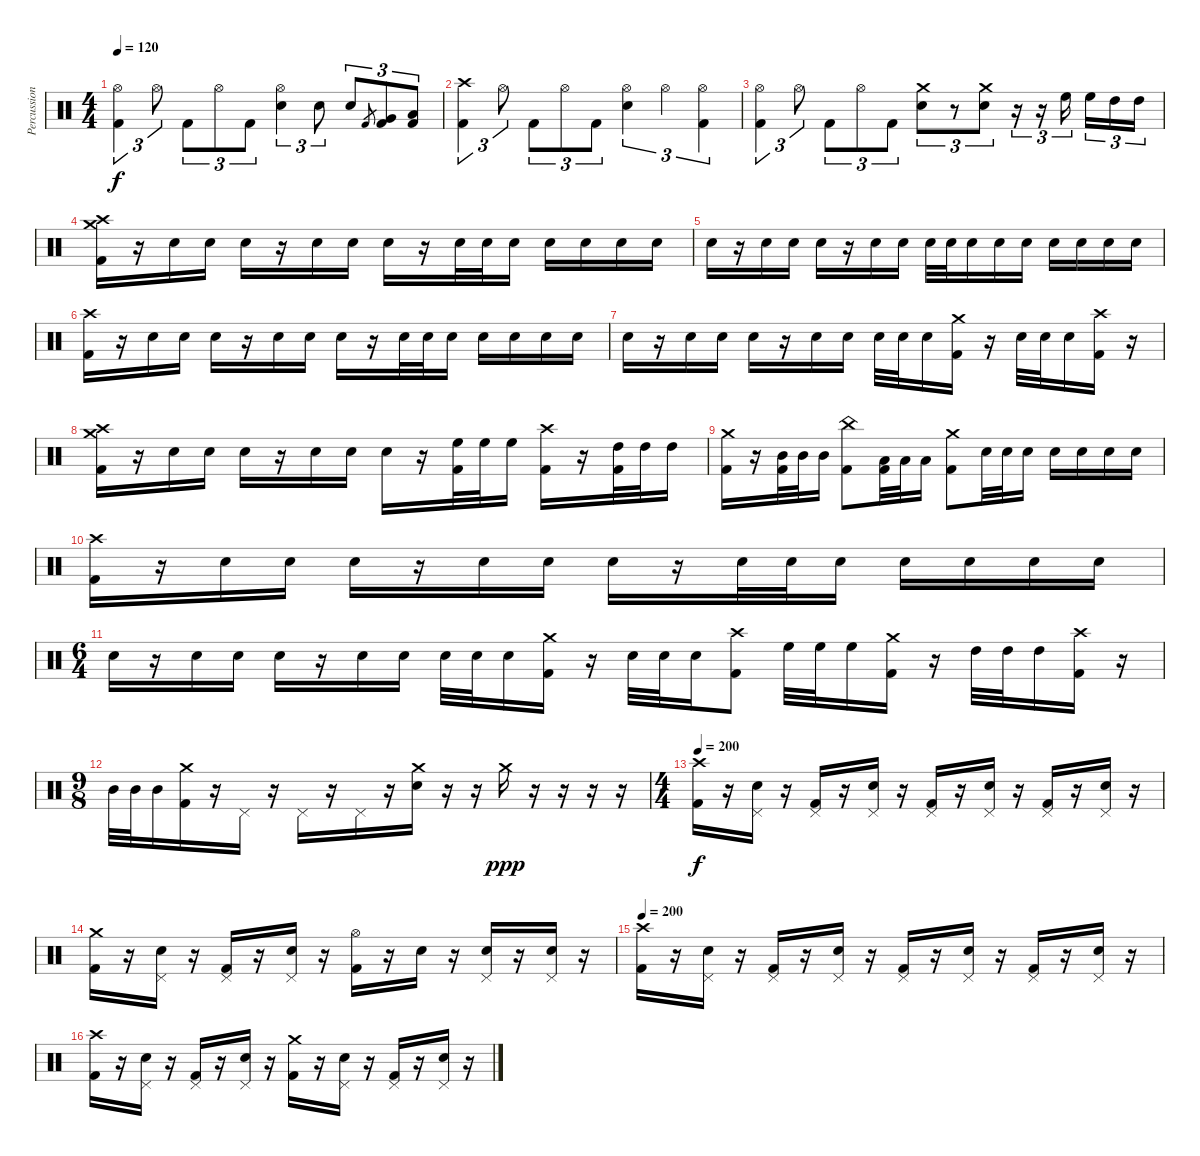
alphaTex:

\track ("Percussion" "Percussion") {instrument percussion}
\staff {score}
\articulation defaults
\ts (4 4)
\tempo 120
\clef neutral
\ks c
("Kick (hit) 2" "Hi-Hat (open)").4{tu (3 2) dy f} "Hi-Hat (open)".8{tu (3 2)} "Kick (hit) 2".8{tu (3 2)} "Hi-Hat (open)".8{tu (3 2)} "Kick (hit) 2".8{tu (3 2)} ("Snare (hit) 2" "Hi-Hat (open)").4{tu (3 2)} "Snare (hit) 2".8{tu (3 2)} "Snare (hit) 2".8{tu (3 2)} "Kick (hit) 2".8{gr} ("Very Low Tom (hit)" "Kick (hit) 2").8{tu (3 2)} ("Low Floor Tom (hit)" "Kick (hit) 2").8{tu (3 2)} |
("Kick (hit) 2" "Crash high (hit)").4{tu (3 2)} "Hi-Hat (open)".8{tu (3 2)} "Kick (hit) 2".8{tu (3 2)} "Hi-Hat (open)".8{tu (3 2)} "Kick (hit) 2".8{tu (3 2)} ("Snare (hit) 2" "Hi-Hat (open)").4{tu (3 2)} "Hi-Hat (open)".4{tu (3 2)} ("Kick (hit) 2" "Hi-Hat (open)").4{tu (3 2)} |
("Kick (hit) 2" "Hi-Hat (open)").4{tu (3 2)} "Hi-Hat (open)".8{tu (3 2)} "Kick (hit) 2".8{tu (3 2)} "Hi-Hat (open)".8{tu (3 2)} "Kick (hit) 2".8{tu (3 2)} ("Snare (hit) 2" "Crash medium (hit)").8{tu (3 2)} r.8{tu (3 2)} ("Snare (hit) 2" "Crash medium (hit)").8{tu (3 2)} r.16{tu (3 2)} r.16{tu (3 2)} "High Floor Tom (hit)".16{tu (3 2) beam splitsecondary} "High Floor Tom (hit)".16{tu (3 2)} "High Tom (hit)".16{tu (3 2)} "High Tom (hit)".16{tu (3 2)} |
("Crash high (hit)" "Crash medium (hit)" "Kick (hit) 2").16 r.16 "Snare (hit) 2".16 "Snare (hit) 2".16 "Snare (hit) 2".16 r.16 "Snare (hit) 2".16 "Snare (hit) 2".16 "Snare (hit) 2".16 r.16 "Snare (hit) 2".32 "Snare (hit) 2".32 "Snare (hit) 2".16 "Snare (hit) 2".16 "Snare (hit) 2".16 "Snare (hit) 2".16 "Snare (hit) 2".16 |
"Snare (hit) 2".16 r.16 "Snare (hit) 2".16 "Snare (hit) 2".16 "Snare (hit) 2".16 r.16 "Snare (hit) 2".16 "Snare (hit) 2".16 "Snare (hit) 2".32 "Snare (hit) 2".32 "Snare (hit) 2".16 "Snare (hit) 2".16 "Snare (hit) 2".16 "Snare (hit) 2".16 "Snare (hit) 2".16 "Snare (hit) 2".16 "Snare (hit) 2".16 |
("Crash high (hit)" "Kick (hit) 2").16 r.16 "Snare (hit) 2".16 "Snare (hit) 2".16 "Snare (hit) 2".16 r.16 "Snare (hit) 2".16 "Snare (hit) 2".16 "Snare (hit) 2".16 r.16 "Snare (hit) 2".32 "Snare (hit) 2".32 "Snare (hit) 2".16 "Snare (hit) 2".16 "Snare (hit) 2".16 "Snare (hit) 2".16 "Snare (hit) 2".16 |
"Snare (hit) 2".16 r.16 "Snare (hit) 2".16 "Snare (hit) 2".16 "Snare (hit) 2".16 r.16 "Snare (hit) 2".16 "Snare (hit) 2".16 "Snare (hit) 2".32 "Snare (hit) 2".32 "Snare (hit) 2".16 ("Crash medium (hit)" "Kick (hit) 2").16 r.16 "Snare (hit) 2".32 "Snare (hit) 2".32 "Snare (hit) 2".16 ("Crash high (hit)" "Kick (hit) 2").16 r.16 |
("Crash high (hit)" "Crash medium (hit)" "Kick (hit) 2").16 r.16 "Snare (hit) 2".16 "Snare (hit) 2".16 "Snare (hit) 2".16 r.16 "Snare (hit) 2".16 "Snare (hit) 2".16 "Snare (hit) 2".16 r.16 ("High Floor Tom (hit)" "Kick (hit) 2").32 "High Floor Tom (hit)".32 "High Floor Tom (hit)".16 ("Crash high (hit)" "Kick (hit) 2").16 r.16 ("High Tom (hit)" "Kick (hit) 2").32 "High Tom (hit)".32 "High Tom (hit)".16 |
("Crash medium (hit)" "Kick (hit) 2").16 r.16 ("Mid Tom (hit)" "Kick (hit) 2").32 "Mid Tom (hit)".32 "Mid Tom (hit)".16 ("China (hit)" "Kick (hit) 2").8 ("Low Tom (hit)" "Kick (hit) 2").32 "Low Tom (hit)".32 "Low Tom (hit)".16 ("Crash medium (hit)" "Kick (hit) 2").8 "Snare (hit) 2".32 "Snare (hit) 2".32 "Snare (hit) 2".16 "Snare (hit) 2".16 "Snare (hit) 2".16 "Snare (hit) 2".16 "Snare (hit) 2".16 |
("Crash high (hit)" "Kick (hit) 2").16 r.16 "Snare (hit) 2".16 "Snare (hit) 2".16 "Snare (hit) 2".16 r.16 "Snare (hit) 2".16 "Snare (hit) 2".16 "Snare (hit) 2".16 r.16 "Snare (hit) 2".32 "Snare (hit) 2".32 "Snare (hit) 2".16 "Snare (hit) 2".16 "Snare (hit) 2".16 "Snare (hit) 2".16 "Snare (hit) 2".16 |
\ts (6 4)
"Snare (hit) 2".16 r.16 "Snare (hit) 2".16 "Snare (hit) 2".16 "Snare (hit) 2".16 r.16 "Snare (hit) 2".16 "Snare (hit) 2".16 "Snare (hit) 2".32 "Snare (hit) 2".32 "Snare (hit) 2".16 ("Crash medium (hit)" "Kick (hit) 2").16 r.16 "Snare (hit) 2".32 "Snare (hit) 2".32 "Snare (hit) 2".16 ("Crash high (hit)" "Kick (hit) 2").8 "High Floor Tom (hit)".32 "High Floor Tom (hit)".32 "High Floor Tom (hit)".16 ("Crash medium (hit)" "Kick (hit) 2").16 r.16 "High Tom (hit)".32 "High Tom (hit)".32 "High Tom (hit)".16 ("Crash high (hit)" "Kick (hit) 2").16 r.16 |
\ts (9 8)
"Mid Tom (hit)".32 "Mid Tom (hit)".32 "Mid Tom (hit)".16 ("Crash medium (hit)" "Kick (hit) 2").16 r.16 "Pedal Hi-Hat (hit)".16 r.16 "Pedal Hi-Hat (hit)".16 r.16 "Pedal Hi-Hat (hit)".16 r.16 ("Crash medium (hit)" "Snare (hit) 2").16 r.16 r.16 "Crash medium (hit)".16{dy ppp} r.16 r.16 r.16 r.16 |
\ts (4 4)
\tempo 200
("Crash high (hit)" "Kick (hit) 2").16{dy f} r.16 ("Pedal Hi-Hat (hit)" "Snare (hit) 2").16 r.16 ("Pedal Hi-Hat (hit)" "Kick (hit) 2").16 r.16 ("Pedal Hi-Hat (hit)" "Snare (hit) 2").16 r.16 ("Pedal Hi-Hat (hit)" "Kick (hit) 2").16 r.16 ("Pedal Hi-Hat (hit)" "Snare (hit) 2").16 r.16 ("Pedal Hi-Hat (hit)" "Kick (hit) 2").16 r.16 ("Pedal Hi-Hat (hit)" "Snare (hit) 2").16 r.16 |
("Crash medium (hit)" "Kick (hit) 2").16 r.16 ("Pedal Hi-Hat (hit)" "Snare (hit) 2").16 r.16 ("Pedal Hi-Hat (hit)" "Kick (hit) 2").16 r.16 ("Pedal Hi-Hat (hit)" "Snare (hit) 2").16 r.16 ("Hi-Hat (open)" "Kick (hit) 2").16 r.16 "Snare (hit) 2".16 r.16 ("Pedal Hi-Hat (hit)" "Snare (hit) 2").16 r.16 ("Pedal Hi-Hat (hit)" "Snare (hit) 2").16 r.16 |
\tempo 200
("Crash high (hit)" "Kick (hit) 2").16 r.16 ("Pedal Hi-Hat (hit)" "Snare (hit) 2").16 r.16 ("Pedal Hi-Hat (hit)" "Kick (hit) 2").16 r.16 ("Pedal Hi-Hat (hit)" "Snare (hit) 2").16 r.16 ("Pedal Hi-Hat (hit)" "Kick (hit) 2").16 r.16 ("Pedal Hi-Hat (hit)" "Snare (hit) 2").16 r.16 ("Pedal Hi-Hat (hit)" "Kick (hit) 2").16 r.16 ("Pedal Hi-Hat (hit)" "Snare (hit) 2").16 r.16 |
("Crash high (hit)" "Kick (hit) 2").16 r.16 ("Pedal Hi-Hat (hit)" "Snare (hit) 2").16 r.16 ("Pedal Hi-Hat (hit)" "Kick (hit) 2").16 r.16 ("Pedal Hi-Hat (hit)" "Snare (hit) 2").16 r.16 ("Crash medium (hit)" "Kick (hit) 2").16 r.16 ("Pedal Hi-Hat (hit)" "Snare (hit) 2").16 r.16 ("Pedal Hi-Hat (hit)" "Kick (hit) 2").16 r.16 ("Pedal Hi-Hat (hit)" "Snare (hit) 2").16 r.16
